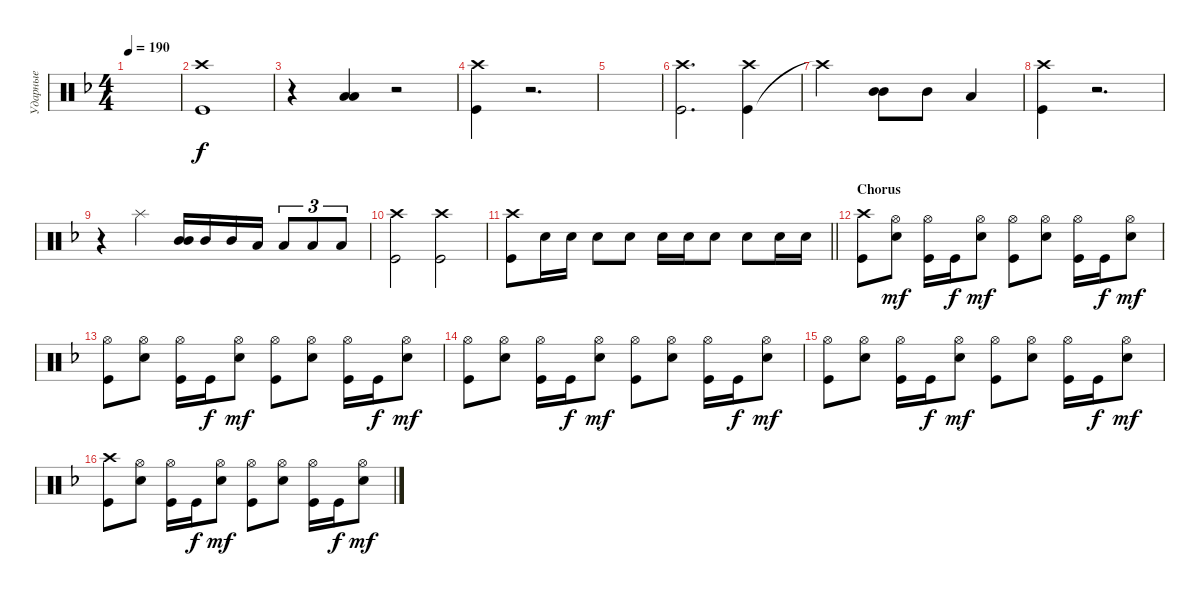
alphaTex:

\track ("Ударные" "Ударные") {instrument percussion}
\staff {score}
\articulation defaults
\ts (4 4)
\tempo 190
\clef neutral
\ks dminor
|
("Kick (hit)" "Crash high (hit)").1 |
r.4 ("Low Tom (hit)" "Low Tom (hit)").4{bd 240} r.2 |
("Kick (hit)" "Crash high (hit)").4 r.2{d} |
|
("Kick (hit)" "Crash high (hit)").2{d} ("Kick (hit)" "Crash high (hit)").4 |
"Crash high (hit)"{t}.2 ("Mid Tom (hit)" "Mid Tom (hit)").8{bd 240} "Mid Tom (hit)".8 "Low Tom (hit)".4 |
("Kick (hit)" "Crash high (hit)").4 r.2{d} |
r.4 "Splash (hit)".4 ("Mid Tom (hit)" "Mid Tom (hit)").16{bd 240} "Mid Tom (hit)".16 "Mid Tom (hit)".16 "Low Tom (hit)".16 "Low Tom (hit)".8{tu (3 2)} "Low Tom (hit)".8{tu (3 2)} "Low Tom (hit)".8{tu (3 2)} |
("Crash high (hit)" "Kick (hit)").2 ("Crash high (hit)" "Kick (hit)").2 |
\barLineRight lightlight
("Kick (hit)" "Crash high (hit)").8 "Snare (hit) 2".16 "Snare (hit) 2".16 "Snare (hit) 2".8 "Snare (hit) 2".8 "Snare (hit) 2".16 "Snare (hit) 2".16 "Snare (hit) 2".8 "Snare (hit) 2".8 "Snare (hit) 2".16 "Snare (hit) 2".16 |
\section ("" "Chorus")
("Kick (hit)" "Crash high (hit)").8 ("Snare (hit) 2" "Hi-Hat (open)").8{dy mf} ("Kick (hit)" "Hi-Hat (open)").16 "Kick (hit)".16{dy f} ("Snare (hit) 2" "Hi-Hat (open)").8{dy mf} ("Kick (hit)" "Hi-Hat (open)").8 ("Snare (hit) 2" "Hi-Hat (open)").8 ("Kick (hit)" "Hi-Hat (open)").16 "Kick (hit)".16{dy f} ("Snare (hit) 2" "Hi-Hat (open)").8{dy mf} |
("Kick (hit)" "Hi-Hat (open)").8 ("Snare (hit) 2" "Hi-Hat (open)").8 ("Kick (hit)" "Hi-Hat (open)").16 "Kick (hit)".16{dy f} ("Snare (hit) 2" "Hi-Hat (open)").8{dy mf} ("Kick (hit)" "Hi-Hat (open)").8 ("Snare (hit) 2" "Hi-Hat (open)").8 ("Kick (hit)" "Hi-Hat (open)").16 "Kick (hit)".16{dy f} ("Snare (hit) 2" "Hi-Hat (open)").8{dy mf} |
("Kick (hit)" "Hi-Hat (open)").8 ("Snare (hit) 2" "Hi-Hat (open)").8 ("Kick (hit)" "Hi-Hat (open)").16 "Kick (hit)".16{dy f} ("Snare (hit) 2" "Hi-Hat (open)").8{dy mf} ("Kick (hit)" "Hi-Hat (open)").8 ("Snare (hit) 2" "Hi-Hat (open)").8 ("Kick (hit)" "Hi-Hat (open)").16 "Kick (hit)".16{dy f} ("Snare (hit) 2" "Hi-Hat (open)").8{dy mf} |
("Kick (hit)" "Hi-Hat (open)").8 ("Snare (hit) 2" "Hi-Hat (open)").8 ("Kick (hit)" "Hi-Hat (open)").16 "Kick (hit)".16{dy f} ("Snare (hit) 2" "Hi-Hat (open)").8{dy mf} ("Kick (hit)" "Hi-Hat (open)").8 ("Snare (hit) 2" "Hi-Hat (open)").8 ("Kick (hit)" "Hi-Hat (open)").16 "Kick (hit)".16{dy f} ("Snare (hit) 2" "Hi-Hat (open)").8{dy mf} |
("Kick (hit)" "Crash high (hit)").8 ("Snare (hit) 2" "Hi-Hat (open)").8 ("Kick (hit)" "Hi-Hat (open)").16 "Kick (hit)".16{dy f} ("Snare (hit) 2" "Hi-Hat (open)").8{dy mf} ("Kick (hit)" "Hi-Hat (open)").8 ("Snare (hit) 2" "Hi-Hat (open)").8 ("Kick (hit)" "Hi-Hat (open)").16 "Kick (hit)".16{dy f} ("Snare (hit) 2" "Hi-Hat (open)").8{dy mf}
